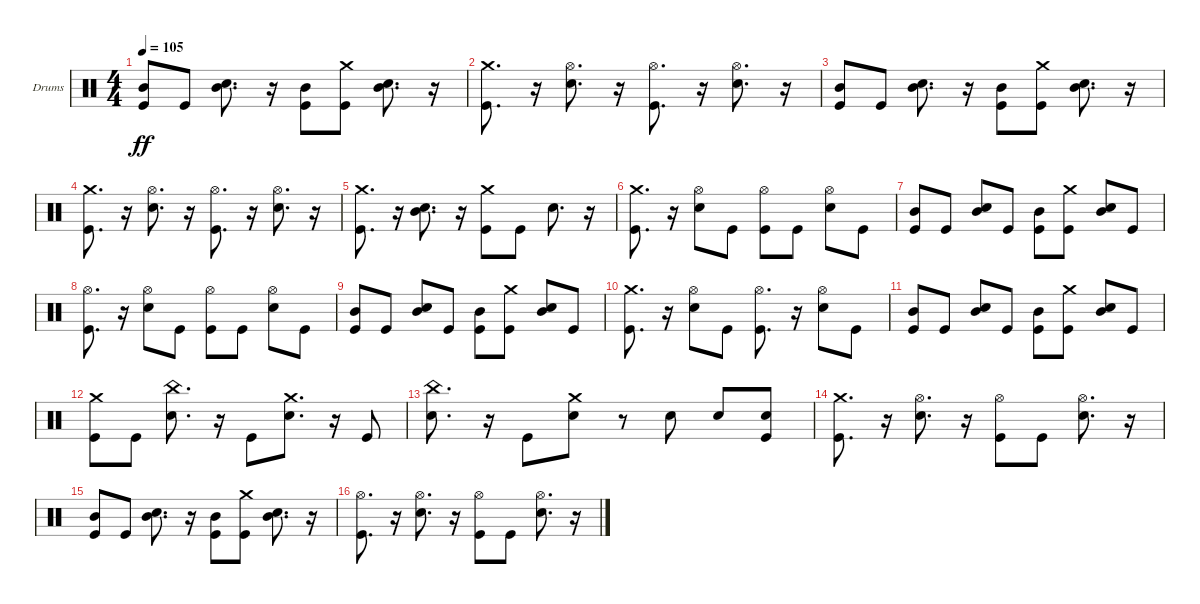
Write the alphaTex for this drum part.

\defaultSystemsLayout 4
\bracketExtendMode groupsimilarinstruments
\firstSystemTrackNameOrientation horizontal
\otherSystemsTrackNameOrientation horizontal
\track ("Drumkit" "Drums") {instrument percussion}
\staff {score}
\articulation defaults
\ts (4 4)
\tempo 105
\clef neutral
\ks c
("Kick (hit)" "Mid Tom (hit)").8{dy ff} "Kick (hit)".8 ("Snare (hit) 2" "Mid Tom (hit)").8{d} r.16 ("Kick (hit)" "Mid Tom (hit)").8 ("Kick (hit)" "Crash medium (hit)").8 ("Snare (hit) 2" "Mid Tom (hit)").8{d} r.16 |
("Kick (hit)" "Crash medium (hit)").8{d} r.16 ("Snare (hit) 2" "Hi-Hat (open)").8{d} r.16 ("Kick (hit)" "Hi-Hat (open)").8{d} r.16 ("Snare (hit) 2" "Hi-Hat (open)").8{d} r.16 |
("Kick (hit)" "Mid Tom (hit)").8 "Kick (hit)".8 ("Snare (hit) 2" "Mid Tom (hit)").8{d} r.16 ("Kick (hit)" "Mid Tom (hit)").8 ("Kick (hit)" "Crash medium (hit)").8 ("Snare (hit) 2" "Mid Tom (hit)").8{d} r.16 |
("Kick (hit)" "Crash medium (hit)").8{d} r.16 ("Snare (hit) 2" "Hi-Hat (open)").8{d} r.16 ("Kick (hit)" "Hi-Hat (open)").8{d} r.16 ("Snare (hit) 2" "Hi-Hat (open)").8{d} r.16 |
("Kick (hit)" "Crash medium (hit)").8{d} r.16 ("Snare (hit) 2" "Mid Tom (hit)").8{d} r.16 ("Kick (hit)" "Crash medium (hit)").8 "Kick (hit)".8 "Snare (hit) 2".8{d} r.16 |
("Kick (hit)" "Crash medium (hit)").8{d} r.16 ("Snare (hit) 2" "Hi-Hat (open)").8 "Kick (hit)".8 ("Kick (hit)" "Hi-Hat (open)").8 "Kick (hit)".8 ("Snare (hit) 2" "Hi-Hat (open)").8 "Kick (hit)".8 |
("Kick (hit)" "Mid Tom (hit)").8 "Kick (hit)".8 ("Snare (hit) 2" "Mid Tom (hit)").8 "Kick (hit)".8 ("Kick (hit)" "Mid Tom (hit)").8 ("Kick (hit)" "Crash medium (hit)").8 ("Snare (hit) 2" "Mid Tom (hit)").8 "Kick (hit)".8 |
("Kick (hit)" "Hi-Hat (open)").8{d} r.16 ("Snare (hit) 2" "Hi-Hat (open)").8 "Kick (hit)".8 ("Kick (hit)" "Hi-Hat (open)").8 "Kick (hit)".8 ("Snare (hit) 2" "Hi-Hat (open)").8 "Kick (hit)".8 |
("Kick (hit)" "Mid Tom (hit)").8 "Kick (hit)".8 ("Snare (hit) 2" "Mid Tom (hit)").8 "Kick (hit)".8 ("Kick (hit)" "Mid Tom (hit)").8 ("Kick (hit)" "Crash medium (hit)").8 ("Snare (hit) 2" "Mid Tom (hit)").8 "Kick (hit)".8 |
("Kick (hit)" "Crash medium (hit)").8{d} r.16 ("Snare (hit) 2" "Hi-Hat (open)").8 "Kick (hit)".8 ("Kick (hit)" "Hi-Hat (open)").8{d} r.16 ("Snare (hit) 2" "Hi-Hat (open)").8 "Kick (hit)".8 |
("Kick (hit)" "Mid Tom (hit)").8 "Kick (hit)".8 ("Snare (hit) 2" "Mid Tom (hit)").8 "Kick (hit)".8 ("Kick (hit)" "Mid Tom (hit)").8 ("Kick (hit)" "Crash medium (hit)").8 ("Snare (hit) 2" "Mid Tom (hit)").8 "Kick (hit)".8 |
("Kick (hit)" "Crash medium (hit)").8 "Kick (hit)".8 ("Snare (hit) 2" "China (hit)").8{d} r.16 "Kick (hit)".8 ("Snare (hit) 2" "Crash medium (hit)").8{d} r.16 "Kick (hit)".8 |
("Snare (hit) 2" "China (hit)").8{d} r.16 "Kick (hit)".8 ("Snare (hit) 2" "Crash medium (hit)").8 r.8 "Snare (hit) 2".8 "Snare (hit) 2".8 ("Kick (hit)" "Snare (hit) 2").8 |
("Kick (hit)" "Crash medium (hit)").8{d} r.16 ("Snare (hit) 2" "Hi-Hat (open)").8{d} r.16 ("Kick (hit)" "Hi-Hat (open)").8 "Kick (hit)".8 ("Snare (hit) 2" "Hi-Hat (open)").8{d} r.16 |
("Kick (hit)" "Mid Tom (hit)").8 "Kick (hit)".8 ("Snare (hit) 2" "Mid Tom (hit)").8{d} r.16 ("Kick (hit)" "Mid Tom (hit)").8 ("Kick (hit)" "Crash medium (hit)").8 ("Snare (hit) 2" "Mid Tom (hit)").8{d} r.16 |
("Kick (hit)" "Hi-Hat (open)").8{d} r.16 ("Snare (hit) 2" "Hi-Hat (open)").8{d} r.16 ("Kick (hit)" "Hi-Hat (open)").8 "Kick (hit)".8 ("Snare (hit) 2" "Hi-Hat (open)").8{d} r.16
